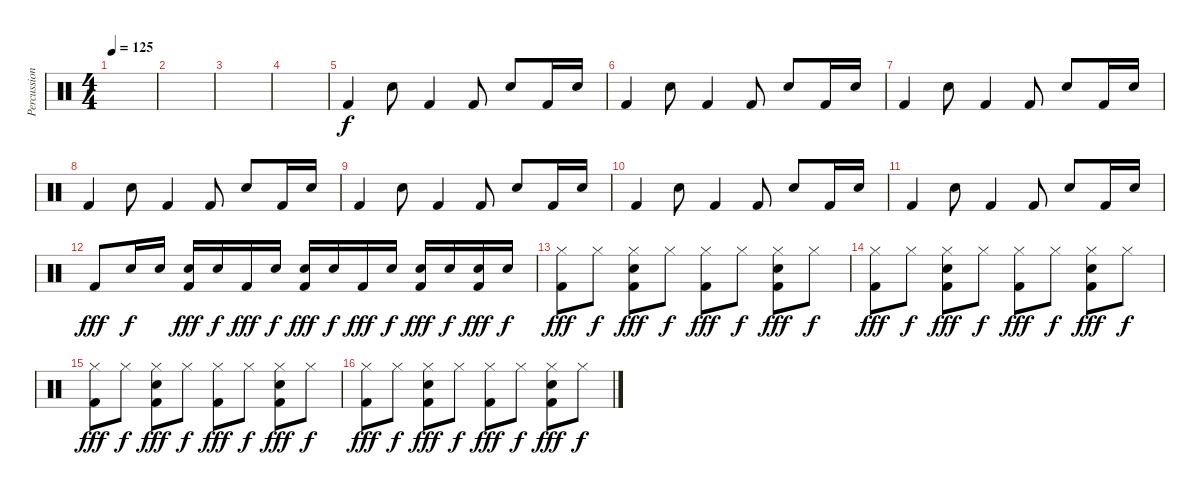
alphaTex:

\track ("Percussion" "Percussion") {instrument percussion}
\staff {score}
\articulation defaults
\ts (4 4)
\tempo 125
\clef neutral
\ks c
|
|
|
|
"Kick (hit) 2".4{dy f} "Snare (hit) 2".8 "Kick (hit) 2".4 "Kick (hit) 2".8 "Snare (hit) 2".8 "Kick (hit) 2".16 "Snare (hit) 2".16 |
"Kick (hit) 2".4 "Snare (hit) 2".8 "Kick (hit) 2".4 "Kick (hit) 2".8 "Snare (hit) 2".8 "Kick (hit) 2".16 "Snare (hit) 2".16 |
"Kick (hit) 2".4 "Snare (hit) 2".8 "Kick (hit) 2".4 "Kick (hit) 2".8 "Snare (hit) 2".8 "Kick (hit) 2".16 "Snare (hit) 2".16 |
"Kick (hit) 2".4 "Snare (hit) 2".8 "Kick (hit) 2".4 "Kick (hit) 2".8 "Snare (hit) 2".8 "Kick (hit) 2".16 "Snare (hit) 2".16 |
"Kick (hit) 2".4 "Snare (hit) 2".8 "Kick (hit) 2".4 "Kick (hit) 2".8 "Snare (hit) 2".8 "Kick (hit) 2".16 "Snare (hit) 2".16 |
"Kick (hit) 2".4 "Snare (hit) 2".8 "Kick (hit) 2".4 "Kick (hit) 2".8 "Snare (hit) 2".8 "Kick (hit) 2".16 "Snare (hit) 2".16 |
"Kick (hit) 2".4 "Snare (hit) 2".8 "Kick (hit) 2".4 "Kick (hit) 2".8 "Snare (hit) 2".8 "Kick (hit) 2".16 "Snare (hit) 2".16 |
"Kick (hit) 2".8{dy fff} "Snare (hit) 2".16{dy f} "Snare (hit) 2".16 ("Kick (hit) 2" "Snare (hit) 2").16{dy fff} "Snare (hit) 2".16{dy f} "Kick (hit) 2".16{dy fff} "Snare (hit) 2".16{dy f} ("Kick (hit) 2" "Snare (hit) 2").16{dy fff} "Snare (hit) 2".16{dy f} "Kick (hit) 2".16{dy fff} "Snare (hit) 2".16{dy f} ("Kick (hit) 2" "Snare (hit) 2").16{dy fff} "Snare (hit) 2".16{dy f} ("Kick (hit) 2" "Snare (hit) 2").16{dy fff} "Snare (hit) 2".16{dy f} |
("Hi-Hat (closed)" "Kick (hit) 2").8{dy fff} "Hi-Hat (closed)".8{dy f} ("Hi-Hat (closed)" "Kick (hit) 2" "Snare (hit) 2").8{dy fff} "Hi-Hat (closed)".8{dy f} ("Hi-Hat (closed)" "Kick (hit) 2").8{dy fff} "Hi-Hat (closed)".8{dy f} ("Hi-Hat (closed)" "Kick (hit) 2" "Snare (hit) 2").8{dy fff} "Hi-Hat (closed)".8{dy f} |
("Hi-Hat (closed)" "Kick (hit) 2").8{dy fff} "Hi-Hat (closed)".8{dy f} ("Hi-Hat (closed)" "Kick (hit) 2" "Snare (hit) 2").8{dy fff} "Hi-Hat (closed)".8{dy f} ("Hi-Hat (closed)" "Kick (hit) 2").8{dy fff} "Hi-Hat (closed)".8{dy f} ("Hi-Hat (closed)" "Kick (hit) 2" "Snare (hit) 2").8{dy fff} "Hi-Hat (closed)".8{dy f} |
("Hi-Hat (closed)" "Kick (hit) 2").8{dy fff} "Hi-Hat (closed)".8{dy f} ("Hi-Hat (closed)" "Kick (hit) 2" "Snare (hit) 2").8{dy fff} "Hi-Hat (closed)".8{dy f} ("Hi-Hat (closed)" "Kick (hit) 2").8{dy fff} "Hi-Hat (closed)".8{dy f} ("Hi-Hat (closed)" "Kick (hit) 2" "Snare (hit) 2").8{dy fff} "Hi-Hat (closed)".8{dy f} |
("Hi-Hat (closed)" "Kick (hit) 2").8{dy fff} "Hi-Hat (closed)".8{dy f} ("Hi-Hat (closed)" "Kick (hit) 2" "Snare (hit) 2").8{dy fff} "Hi-Hat (closed)".8{dy f} ("Hi-Hat (closed)" "Kick (hit) 2").8{dy fff} "Hi-Hat (closed)".8{dy f} ("Hi-Hat (closed)" "Kick (hit) 2" "Snare (hit) 2").8{dy fff} "Hi-Hat (closed)".8{dy f}
